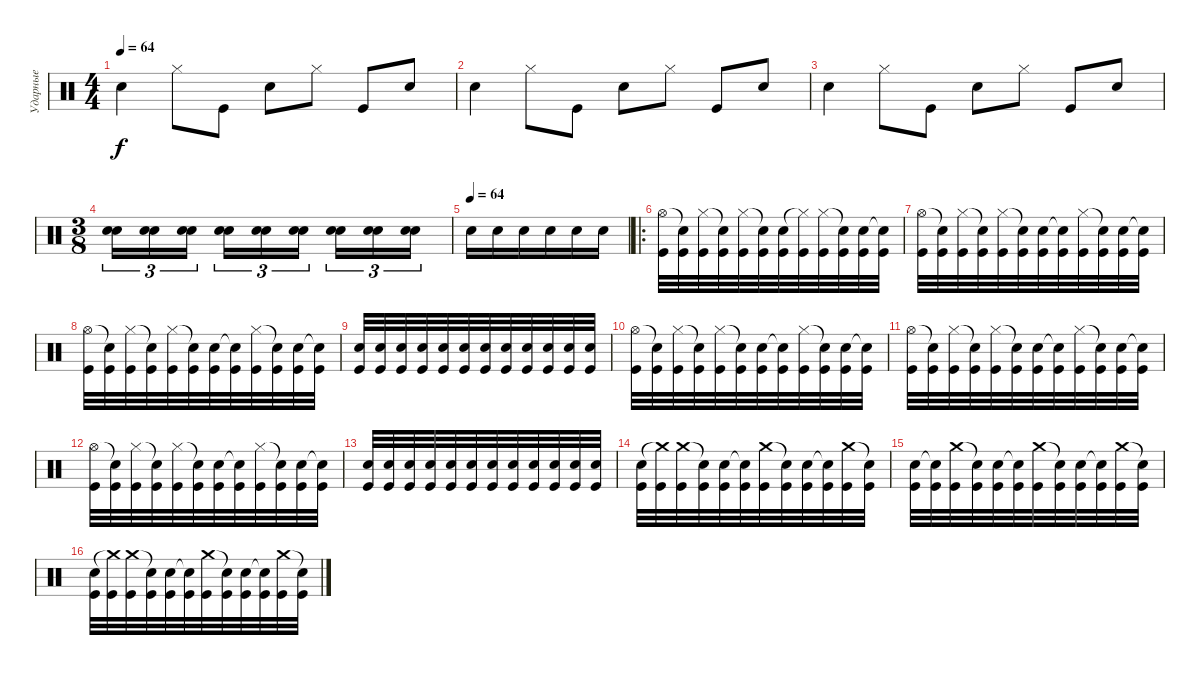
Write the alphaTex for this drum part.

\track ("Ударные" "Ударные") {instrument percussion}
\staff {score}
\articulation defaults
\ts (4 4)
\tempo 64
\tempo 120
\tempo 64
\clef neutral
\ks c "Snare (hit) 2".4{dy f} "Hi-Hat (closed)".8 "Kick (hit)".8 "Snare (hit) 2".8 "Hi-Hat (closed)".8 "Kick (hit)".8 "Snare (hit) 2".8
|
"Snare (hit) 2".4 "Hi-Hat (closed)".8 "Kick (hit)".8 "Snare (hit) 2".8 "Hi-Hat (closed)".8 "Kick (hit)".8 "Snare (hit) 2".8 |
"Snare (hit) 2".4 "Hi-Hat (closed)".8 "Kick (hit)".8 "Snare (hit) 2".8 "Hi-Hat (closed)".8 "Kick (hit)".8 "Snare (hit) 2".8 |
\ts (3 8)
("Snare (hit) 2" "Electric Snare (hit)").16{tu (3 2)} ("Snare (hit) 2" "Electric Snare (hit)").16{tu (3 2)} ("Snare (hit) 2" "Electric Snare (hit)").16{tu (3 2)} ("Snare (hit) 2" "Electric Snare (hit)").16{tu (3 2)} ("Snare (hit) 2" "Electric Snare (hit)").16{tu (3 2)} ("Snare (hit) 2" "Electric Snare (hit)").16{tu (3 2)} ("Snare (hit) 2" "Electric Snare (hit)").16{tu (3 2)} ("Snare (hit) 2" "Electric Snare (hit)").16{tu (3 2)} ("Snare (hit) 2" "Electric Snare (hit)").16{tu (3 2)} |
\tempo (64)
"Snare (hit) 2".16 "Snare (hit) 2".16 "Snare (hit) 2".16 "Snare (hit) 2".16 "Snare (hit) 2".16 "Snare (hit) 2".16 |
\ro
("Hi-Hat (open)" "Kick (hit)").32 ("Snare (hit)"{t} "Kick (hit)").32 ("Hi-Hat (closed)" "Kick (hit)").32 ("Snare (hit)"{t} "Kick (hit)").32 ("Hi-Hat (closed)" "Kick (hit)").32 ("Snare (hit)"{t} "Kick (hit)").32 ("Snare (hit) 2" "Kick (hit)").32 ("Hi-Hat (closed)"{t} "Kick (hit)").32 ("Hi-Hat (closed)" "Kick (hit)").32 ("Snare (hit)"{t} "Kick (hit)").32 ("Snare (hit) 2" "Kick (hit)").32 ("Snare (hit)"{t} "Kick (hit)").32 |
("Hi-Hat (open)" "Kick (hit)").32 ("Snare (hit)"{t} "Kick (hit)").32 ("Hi-Hat (closed)" "Kick (hit)").32 ("Snare (hit)"{t} "Kick (hit)").32 ("Hi-Hat (closed)" "Kick (hit)").32 ("Snare (hit)"{t} "Kick (hit)").32 ("Snare (hit) 2" "Kick (hit)").32 ("Snare (hit)"{t} "Kick (hit)").32 ("Hi-Hat (closed)" "Kick (hit)").32 ("Snare (hit)"{t} "Kick (hit)").32 ("Snare (hit) 2" "Kick (hit)").32 ("Snare (hit)"{t} "Kick (hit)").32 |
("Hi-Hat (open)" "Kick (hit)").32 ("Snare (hit)"{t} "Kick (hit)").32 ("Hi-Hat (closed)" "Kick (hit)").32 ("Snare (hit)"{t} "Kick (hit)").32 ("Hi-Hat (closed)" "Kick (hit)").32 ("Snare (hit)"{t} "Kick (hit)").32 ("Snare (hit) 2" "Kick (hit)").32 ("Snare (hit)"{t} "Kick (hit)").32 ("Hi-Hat (closed)" "Kick (hit)").32 ("Snare (hit)"{t} "Kick (hit)").32 ("Snare (hit) 2" "Kick (hit)").32 ("Snare (hit)"{t} "Kick (hit)").32 |
("Snare (hit) 2" "Kick (hit)").32 ("Snare (hit) 2" "Kick (hit)").32 ("Snare (hit) 2" "Kick (hit)").32 ("Snare (hit) 2" "Kick (hit)").32 ("Snare (hit) 2" "Kick (hit)").32 ("Snare (hit) 2" "Kick (hit)").32 ("Snare (hit) 2" "Kick (hit)").32 ("Snare (hit) 2" "Kick (hit)").32 ("Snare (hit) 2" "Kick (hit)").32 ("Snare (hit) 2" "Kick (hit)").32 ("Snare (hit) 2" "Kick (hit)").32 ("Snare (hit) 2" "Kick (hit)").32 |
("Hi-Hat (open)" "Kick (hit)").32 ("Snare (hit)"{t} "Kick (hit)").32 ("Hi-Hat (closed)" "Kick (hit)").32 ("Snare (hit)"{t} "Kick (hit)").32 ("Hi-Hat (closed)" "Kick (hit)").32 ("Snare (hit)"{t} "Kick (hit)").32 ("Snare (hit) 2" "Kick (hit)").32 ("Snare (hit)"{t} "Kick (hit)").32 ("Hi-Hat (closed)" "Kick (hit)").32 ("Snare (hit)"{t} "Kick (hit)").32 ("Snare (hit) 2" "Kick (hit)").32 ("Snare (hit)"{t} "Kick (hit)").32 |
("Hi-Hat (open)" "Kick (hit)").32 ("Snare (hit)"{t} "Kick (hit)").32 ("Hi-Hat (closed)" "Kick (hit)").32 ("Snare (hit)"{t} "Kick (hit)").32 ("Hi-Hat (closed)" "Kick (hit)").32 ("Snare (hit)"{t} "Kick (hit)").32 ("Snare (hit) 2" "Kick (hit)").32 ("Snare (hit)"{t} "Kick (hit)").32 ("Hi-Hat (closed)" "Kick (hit)").32 ("Snare (hit)"{t} "Kick (hit)").32 ("Snare (hit) 2" "Kick (hit)").32 ("Snare (hit)"{t} "Kick (hit)").32 |
("Hi-Hat (open)" "Kick (hit)").32 ("Snare (hit)"{t} "Kick (hit)").32 ("Hi-Hat (closed)" "Kick (hit)").32 ("Snare (hit)"{t} "Kick (hit)").32 ("Hi-Hat (closed)" "Kick (hit)").32 ("Snare (hit)"{t} "Kick (hit)").32 ("Snare (hit) 2" "Kick (hit)").32 ("Snare (hit)"{t} "Kick (hit)").32 ("Hi-Hat (closed)" "Kick (hit)").32 ("Snare (hit)"{t} "Kick (hit)").32 ("Snare (hit) 2" "Kick (hit)").32 ("Snare (hit)"{t} "Kick (hit)").32 |
("Snare (hit) 2" "Kick (hit)").32 ("Snare (hit) 2" "Kick (hit)").32 ("Snare (hit) 2" "Kick (hit)").32 ("Snare (hit) 2" "Kick (hit)").32 ("Snare (hit) 2" "Kick (hit)").32 ("Snare (hit) 2" "Kick (hit)").32 ("Snare (hit) 2" "Kick (hit)").32 ("Snare (hit) 2" "Kick (hit)").32 ("Snare (hit) 2" "Kick (hit)").32 ("Snare (hit) 2" "Kick (hit)").32 ("Snare (hit) 2" "Kick (hit)").32 ("Snare (hit) 2" "Kick (hit)").32 |
("Snare (hit) 2" "Kick (hit)").32 ("Crash medium (hit)"{t} "Kick (hit)").32 ("Crash medium (hit)" "Kick (hit)").32 ("Snare (hit)"{t} "Kick (hit)").32 ("Snare (hit) 2" "Kick (hit)").32 ("Snare (hit)"{t} "Kick (hit)").32 ("Crash medium (hit)" "Kick (hit)").32 ("Snare (hit)"{t} "Kick (hit)").32 ("Snare (hit) 2" "Kick (hit)").32 ("Snare (hit)"{t} "Kick (hit)").32 ("Crash medium (hit)" "Kick (hit)").32 ("Snare (hit)"{t} "Kick (hit)").32 |
("Snare (hit) 2" "Kick (hit)").32 ("Snare (hit)"{t} "Kick (hit)").32 ("Crash medium (hit)" "Kick (hit)").32 ("Snare (hit)"{t} "Kick (hit)").32 ("Snare (hit) 2" "Kick (hit)").32 ("Snare (hit)"{t} "Kick (hit)").32 ("Crash medium (hit)" "Kick (hit)").32 ("Snare (hit) 2"{t} "Kick (hit)").32 ("Snare (hit) 2" "Kick (hit)").32 ("Snare (hit)"{t} "Kick (hit)").32 ("Crash medium (hit)" "Kick (hit)").32 ("Snare (hit)"{t} "Kick (hit)").32 |
("Snare (hit) 2" "Kick (hit)").32 ("Crash medium (hit)"{t} "Kick (hit)").32 ("Crash medium (hit)" "Kick (hit)").32 ("Snare (hit)"{t} "Kick (hit)").32 ("Snare (hit) 2" "Kick (hit)").32 ("Snare (hit)"{t} "Kick (hit)").32 ("Crash medium (hit)" "Kick (hit)").32 ("Snare (hit)"{t} "Kick (hit)").32 ("Snare (hit) 2" "Kick (hit)").32 ("Snare (hit)"{t} "Kick (hit)").32 ("Crash medium (hit)" "Kick (hit)").32 ("Snare (hit)"{t} "Kick (hit)").32
